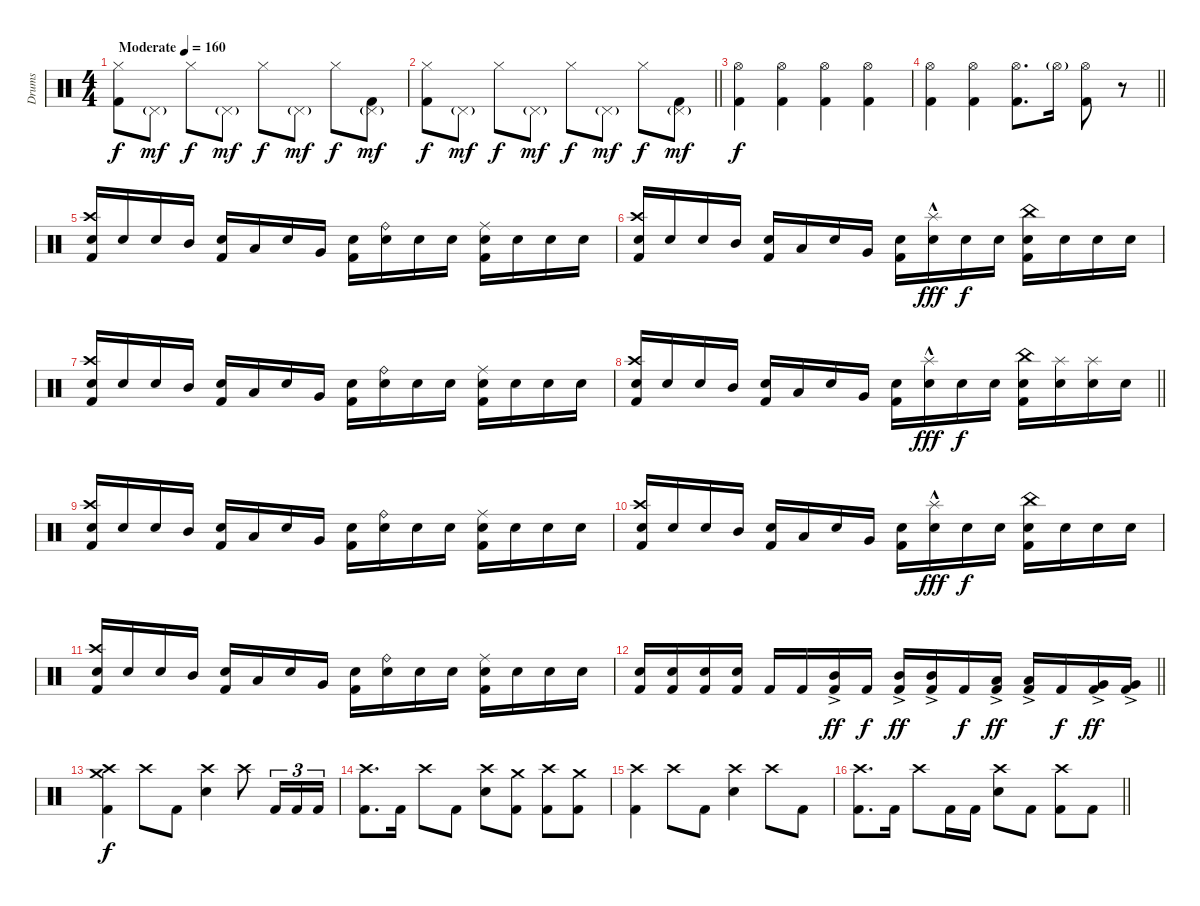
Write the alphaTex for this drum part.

\track ("Drums" "Drums") {instrument percussion}
\staff {score}
\articulation defaults
\ts (4 4)
\tempo (160 "Moderate")
\clef neutral
\ks c
("Hi-Hat (closed)" "Kick (hit) 2").8{dy f} "Pedal Hi-Hat (hit)"{g}.8{dy mf} "Hi-Hat (closed)".8{dy f} "Pedal Hi-Hat (hit)"{g}.8{dy mf} "Hi-Hat (closed)".8{dy f} "Pedal Hi-Hat (hit)"{g}.8{dy mf} "Hi-Hat (closed)".8{dy f} ("Pedal Hi-Hat (hit)"{g} "Kick (hit) 2").8{dy mf} |
\barLineRight lightlight
("Hi-Hat (closed)" "Kick (hit) 2").8{dy f} "Pedal Hi-Hat (hit)"{g}.8{dy mf} "Hi-Hat (closed)".8{dy f} "Pedal Hi-Hat (hit)"{g}.8{dy mf} "Hi-Hat (closed)".8{dy f} "Pedal Hi-Hat (hit)"{g}.8{dy mf} "Hi-Hat (closed)".8{dy f} ("Pedal Hi-Hat (hit)"{g} "Kick (hit) 2").8{dy mf} |
("Hi-Hat (open)" "Kick (hit) 2").4{dy f} ("Hi-Hat (open)" "Kick (hit) 2").4 ("Hi-Hat (open)" "Kick (hit) 2").4 ("Hi-Hat (open)" "Kick (hit) 2").4 |
\barLineRight lightlight
("Hi-Hat (open)" "Kick (hit) 2").4 ("Hi-Hat (open)" "Kick (hit) 2").4 ("Hi-Hat (open)" "Kick (hit) 2").8{d} "Hi-Hat (open)"{g}.16 ("Hi-Hat (open)" "Kick (hit) 2").8 r.8 |
("Crash high (hit)" "Electric Snare (hit)" "Kick (hit) 2").16 "Electric Snare (hit)".16 "Electric Snare (hit)".16 "Mid Tom (hit)".16 ("Electric Snare (hit)" "Kick (hit) 2").16 "Low Tom (hit)".16 "Electric Snare (hit)".16 "Very Low Tom (hit)".16 ("Electric Snare (hit)" "Kick (hit) 2").16 ("Ride (bell)" "Electric Snare (hit)").16 "Electric Snare (hit)".16 "Electric Snare (hit)".16 ("Ride (middle)" "Electric Snare (hit)" "Kick (hit) 2").16 "Electric Snare (hit)".16 "Electric Snare (hit)".16 "Electric Snare (hit)".16 |
("Crash high (hit)" "Electric Snare (hit)" "Kick (hit) 2").16 "Electric Snare (hit)".16 "Electric Snare (hit)".16 "Mid Tom (hit)".16 ("Electric Snare (hit)" "Kick (hit) 2").16 "Low Tom (hit)".16 "Electric Snare (hit)".16 "Very Low Tom (hit)".16 ("Electric Snare (hit)" "Kick (hit) 2").16 ("Splash (hit)"{hac} "Electric Snare (hit)").16{dy fff} "Electric Snare (hit)".16{dy f} "Electric Snare (hit)".16 ("China (hit)" "Electric Snare (hit)" "Kick (hit) 2").16 "Electric Snare (hit)".16 "Electric Snare (hit)".16 "Electric Snare (hit)".16 |
("Crash high (hit)" "Electric Snare (hit)" "Kick (hit) 2").16 "Electric Snare (hit)".16 "Electric Snare (hit)".16 "Mid Tom (hit)".16 ("Electric Snare (hit)" "Kick (hit) 2").16 "Low Tom (hit)".16 "Electric Snare (hit)".16 "Very Low Tom (hit)".16 ("Electric Snare (hit)" "Kick (hit) 2").16 ("Ride (bell)" "Electric Snare (hit)").16 "Electric Snare (hit)".16 "Electric Snare (hit)".16 ("Ride (middle)" "Electric Snare (hit)" "Kick (hit) 2").16 "Electric Snare (hit)".16 "Electric Snare (hit)".16 "Electric Snare (hit)".16 |
\barLineRight lightlight
("Crash high (hit)" "Electric Snare (hit)" "Kick (hit) 2").16 "Electric Snare (hit)".16 "Electric Snare (hit)".16 "Mid Tom (hit)".16 ("Electric Snare (hit)" "Kick (hit) 2").16 "Low Tom (hit)".16 "Electric Snare (hit)".16 "Very Low Tom (hit)".16 ("Electric Snare (hit)" "Kick (hit) 2").16 ("Splash (hit)"{hac} "Electric Snare (hit)").16{dy fff} "Electric Snare (hit)".16{dy f} "Electric Snare (hit)".16 ("China (hit)" "Electric Snare (hit)" "Kick (hit) 2").16 ("Splash (hit)" "Electric Snare (hit)").16 ("Splash (hit)" "Electric Snare (hit)").16 "Electric Snare (hit)".16 |
("Crash high (hit)" "Electric Snare (hit)" "Kick (hit) 2").16 "Electric Snare (hit)".16 "Electric Snare (hit)".16 "Mid Tom (hit)".16 ("Electric Snare (hit)" "Kick (hit) 2").16 "Low Tom (hit)".16 "Electric Snare (hit)".16 "Very Low Tom (hit)".16 ("Electric Snare (hit)" "Kick (hit) 2").16 ("Ride (bell)" "Electric Snare (hit)").16 "Electric Snare (hit)".16 "Electric Snare (hit)".16 ("Ride (middle)" "Electric Snare (hit)" "Kick (hit) 2").16 "Electric Snare (hit)".16 "Electric Snare (hit)".16 "Electric Snare (hit)".16 |
("Crash high (hit)" "Electric Snare (hit)" "Kick (hit) 2").16 "Electric Snare (hit)".16 "Electric Snare (hit)".16 "Mid Tom (hit)".16 ("Electric Snare (hit)" "Kick (hit) 2").16 "Low Tom (hit)".16 "Electric Snare (hit)".16 "Very Low Tom (hit)".16 ("Electric Snare (hit)" "Kick (hit) 2").16 ("Splash (hit)"{hac} "Electric Snare (hit)").16{dy fff} "Electric Snare (hit)".16{dy f} "Electric Snare (hit)".16 ("China (hit)" "Electric Snare (hit)" "Kick (hit) 2").16 "Electric Snare (hit)".16 "Electric Snare (hit)".16 "Electric Snare (hit)".16 |
("Crash high (hit)" "Electric Snare (hit)" "Kick (hit) 2").16 "Electric Snare (hit)".16 "Electric Snare (hit)".16 "Mid Tom (hit)".16 ("Electric Snare (hit)" "Kick (hit) 2").16 "Low Tom (hit)".16 "Electric Snare (hit)".16 "Very Low Tom (hit)".16 ("Electric Snare (hit)" "Kick (hit) 2").16 ("Ride (bell)" "Electric Snare (hit)").16 "Electric Snare (hit)".16 "Electric Snare (hit)".16 ("Ride (middle)" "Electric Snare (hit)" "Kick (hit) 2").16 "Electric Snare (hit)".16 "Electric Snare (hit)".16 "Electric Snare (hit)".16 |
\barLineRight lightlight
("Electric Snare (hit)" "Kick (hit) 2").16 ("Electric Snare (hit)" "Kick (hit) 2").16 ("Electric Snare (hit)" "Kick (hit) 2").16 ("Electric Snare (hit)" "Kick (hit) 2").16 "Kick (hit) 2".16 "Kick (hit) 2".16 ("Mid Tom (hit)"{ac} "Kick (hit) 2").16{dy ff} "Kick (hit) 2".16{dy f} ("Mid Tom (hit)"{ac} "Kick (hit) 2").16{dy ff} ("Mid Tom (hit)"{ac} "Kick (hit) 2").16 "Kick (hit) 2".16{dy f} ("Low Tom (hit)"{ac} "Kick (hit) 2").16{dy ff} ("Low Tom (hit)"{ac} "Kick (hit) 2").16 "Kick (hit) 2".16{dy f} ("Very Low Tom (hit)"{ac} "Kick (hit) 2").16{dy ff} ("Very Low Tom (hit)"{ac} "Kick (hit) 2").16 |
("Crash high (hit)" "Crash medium (hit)" "Kick (hit) 2").4{dy f} "Crash high (hit)".8 "Kick (hit) 2".8 ("Crash high (hit)" "Electric Snare (hit)").4 "Crash high (hit)".8 "Kick (hit) 2".16{tu (3 2)} "Kick (hit) 2".16{tu (3 2)} "Kick (hit) 2".16{tu (3 2)} |
("Crash high (hit)" "Kick (hit) 2").8{d} "Kick (hit) 2".16 "Crash high (hit)".8 "Kick (hit) 2".8 ("Crash high (hit)" "Electric Snare (hit)").8 ("Crash medium (hit)" "Kick (hit) 2").8 ("Crash high (hit)" "Kick (hit) 2").8 ("Crash medium (hit)" "Kick (hit) 2").8 |
("Crash high (hit)" "Kick (hit) 2").4 "Crash high (hit)".8 "Kick (hit) 2".8 ("Crash high (hit)" "Electric Snare (hit)").4 "Crash high (hit)".8 "Kick (hit) 2".8 |
\barLineRight lightlight
("Crash high (hit)" "Kick (hit) 2").8{d} "Kick (hit) 2".16 "Crash high (hit)".8 "Kick (hit) 2".16 "Kick (hit) 2".16 ("Crash high (hit)" "Electric Snare (hit)").8 "Kick (hit) 2".8 ("Crash high (hit)" "Kick (hit) 2").8 "Kick (hit) 2".8
